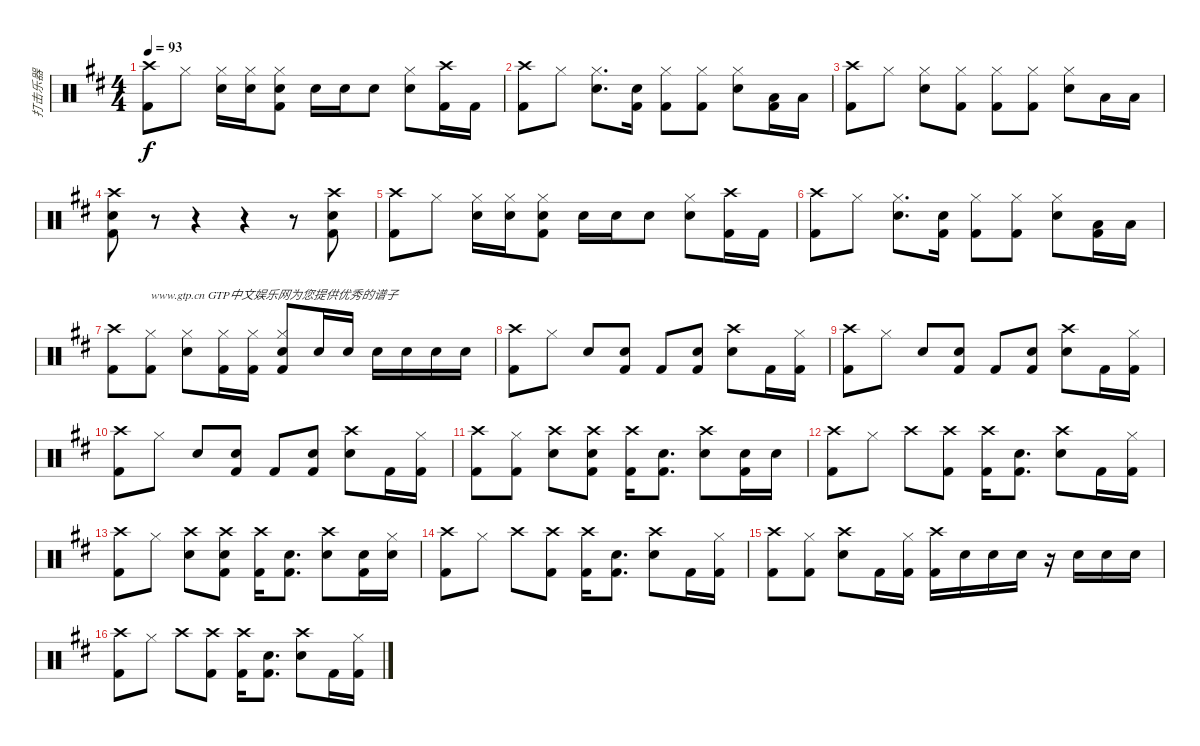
\track ("打击乐器" "打击乐器") {instrument percussion}
\staff {score}
\articulation defaults
\ts (4 4)
\tempo 93
\clef neutral
\ks d
("Crash high (hit)" "Kick (hit) 2").8{dy f} "Hi-Hat (closed)".8 ("Hi-Hat (closed)" "Snare (hit) 2").16 ("Hi-Hat (closed)" "Snare (hit) 2").16 ("Hi-Hat (closed)" "Snare (hit) 2" "Kick (hit) 2").8 "Snare (hit) 2".16 "Snare (hit) 2".16 "Snare (hit) 2".8 ("Hi-Hat (closed)" "Snare (hit) 2").8 ("Crash high (hit)" "Kick (hit) 2").16 "Kick (hit) 2".16 |
("Crash high (hit)" "Kick (hit) 2").8 "Hi-Hat (closed)".8 ("Hi-Hat (closed)" "Snare (hit) 2").8{d} ("Snare (hit) 2" "Kick (hit) 2").16 ("Hi-Hat (closed)" "Kick (hit) 2").8 ("Hi-Hat (closed)" "Kick (hit) 2").8 ("Hi-Hat (closed)" "Snare (hit) 2").8 ("Low Tom (hit)" "Kick (hit) 2").16 "Low Tom (hit)".16 |
("Crash high (hit)" "Kick (hit) 2").8 "Hi-Hat (closed)".8 ("Hi-Hat (closed)" "Snare (hit) 2").8 ("Hi-Hat (closed)" "Kick (hit) 2").8 ("Hi-Hat (closed)" "Kick (hit) 2").8 ("Hi-Hat (closed)" "Kick (hit) 2").8 ("Hi-Hat (closed)" "Snare (hit) 2").8 "Low Tom (hit)".16 "Low Tom (hit)".16 |
("Crash high (hit)" "Snare (hit) 2" "Kick (hit) 2").8 r.8 r.4 r.4 r.8 ("Crash high (hit)" "Snare (hit) 2" "Kick (hit) 2").8 |
("Crash high (hit)" "Kick (hit) 2").8 "Hi-Hat (closed)".8 ("Hi-Hat (closed)" "Snare (hit) 2").16 ("Hi-Hat (closed)" "Snare (hit) 2").16 ("Hi-Hat (closed)" "Snare (hit) 2" "Kick (hit) 2").8 "Snare (hit) 2".16 "Snare (hit) 2".16 "Snare (hit) 2".8 ("Hi-Hat (closed)" "Snare (hit) 2").8 ("Crash high (hit)" "Kick (hit) 2").16 "Kick (hit) 2".16 |
("Crash high (hit)" "Kick (hit) 2").8 "Hi-Hat (closed)".8 ("Hi-Hat (closed)" "Snare (hit) 2").8{d} ("Snare (hit) 2" "Kick (hit) 2").16 ("Hi-Hat (closed)" "Kick (hit) 2").8 ("Hi-Hat (closed)" "Kick (hit) 2").8 ("Hi-Hat (closed)" "Snare (hit) 2").8 ("Low Tom (hit)" "Kick (hit) 2").16 "Low Tom (hit)".16 |
("Crash high (hit)" "Kick (hit) 2").8 ("Hi-Hat (closed)" "Kick (hit) 2").8{txt "www.gtp.cn GTP中文娱乐网为您提供优秀的谱子"} ("Hi-Hat (closed)" "Snare (hit) 2").8 ("Hi-Hat (closed)" "Kick (hit) 2").16 ("Hi-Hat (closed)" "Kick (hit) 2").16 ("Hi-Hat (closed)" "Snare (hit) 2" "Kick (hit) 2").8 "Snare (hit) 2".16 "Snare (hit) 2".16 "Snare (hit) 2".16 "Snare (hit) 2".16 "Snare (hit) 2".16 "Snare (hit) 2".16 |
("Crash high (hit)" "Kick (hit) 2").8 "Hi-Hat (closed)".8 "Snare (hit) 2".8 ("Snare (hit) 2" "Kick (hit) 2").8 "Kick (hit) 2".8 ("Snare (hit) 2" "Kick (hit) 2").8 ("Crash high (hit)" "Snare (hit) 2").8 "Kick (hit) 2".16 ("Hi-Hat (closed)" "Kick (hit) 2").16 |
("Crash high (hit)" "Kick (hit) 2").8 "Hi-Hat (closed)".8 "Snare (hit) 2".8 ("Snare (hit) 2" "Kick (hit) 2").8 "Kick (hit) 2".8 ("Snare (hit) 2" "Kick (hit) 2").8 ("Crash high (hit)" "Snare (hit) 2").8 "Kick (hit) 2".16 ("Hi-Hat (closed)" "Kick (hit) 2").16 |
("Crash high (hit)" "Kick (hit) 2").8 "Hi-Hat (closed)".8 "Snare (hit) 2".8 ("Snare (hit) 2" "Kick (hit) 2").8 "Kick (hit) 2".8 ("Snare (hit) 2" "Kick (hit) 2").8 ("Crash high (hit)" "Snare (hit) 2").8 "Kick (hit) 2".16 ("Hi-Hat (closed)" "Kick (hit) 2").16 |
("Crash high (hit)" "Kick (hit) 2").8 ("Hi-Hat (closed)" "Kick (hit) 2").8 ("Crash high (hit)" "Snare (hit) 2").8 ("Crash high (hit)" "Snare (hit) 2" "Kick (hit) 2").8 ("Crash high (hit)" "Kick (hit) 2").16 ("Snare (hit) 2" "Kick (hit) 2").8{d} ("Crash high (hit)" "Snare (hit) 2").8 ("Snare (hit) 2" "Kick (hit) 2").16 "Snare (hit) 2".16 |
("Crash high (hit)" "Kick (hit) 2").8 "Hi-Hat (closed)".8 "Crash high (hit)".8 ("Crash high (hit)" "Kick (hit) 2").8 ("Crash high (hit)" "Kick (hit) 2").16 ("Snare (hit) 2" "Kick (hit) 2").8{d} ("Crash high (hit)" "Snare (hit) 2").8 "Kick (hit) 2".16 ("Hi-Hat (closed)" "Kick (hit) 2").16 |
("Crash high (hit)" "Kick (hit) 2").8 "Hi-Hat (closed)".8 ("Crash high (hit)" "Snare (hit) 2").8 ("Crash high (hit)" "Snare (hit) 2" "Kick (hit) 2").8 ("Crash high (hit)" "Kick (hit) 2").16 ("Snare (hit) 2" "Kick (hit) 2").8{d} ("Crash high (hit)" "Snare (hit) 2").8 ("Snare (hit) 2" "Kick (hit) 2").16 ("Hi-Hat (closed)" "Snare (hit) 2").16 |
("Crash high (hit)" "Kick (hit) 2").8 "Hi-Hat (closed)".8 "Crash high (hit)".8 ("Crash high (hit)" "Kick (hit) 2").8 ("Crash high (hit)" "Kick (hit) 2").16 ("Snare (hit) 2" "Kick (hit) 2").8{d} ("Crash high (hit)" "Snare (hit) 2").8 "Kick (hit) 2".16 ("Hi-Hat (closed)" "Kick (hit) 2").16 |
("Crash high (hit)" "Kick (hit) 2").8 ("Hi-Hat (closed)" "Kick (hit) 2").8 ("Crash high (hit)" "Snare (hit) 2").8 "Kick (hit) 2".16 ("Hi-Hat (closed)" "Kick (hit) 2").16 ("Crash high (hit)" "Kick (hit) 2").16 "Snare (hit) 2".16 "Snare (hit) 2".16 "Snare (hit) 2".16 r.16 "Snare (hit) 2".16 "Snare (hit) 2".16 "Snare (hit) 2".16 |
("Crash high (hit)" "Kick (hit) 2").8 "Hi-Hat (closed)".8 "Crash high (hit)".8 ("Crash high (hit)" "Kick (hit) 2").8 ("Crash high (hit)" "Kick (hit) 2").16 ("Snare (hit) 2" "Kick (hit) 2").8{d} ("Crash high (hit)" "Snare (hit) 2").8 "Kick (hit) 2".16 ("Hi-Hat (closed)" "Kick (hit) 2").16
